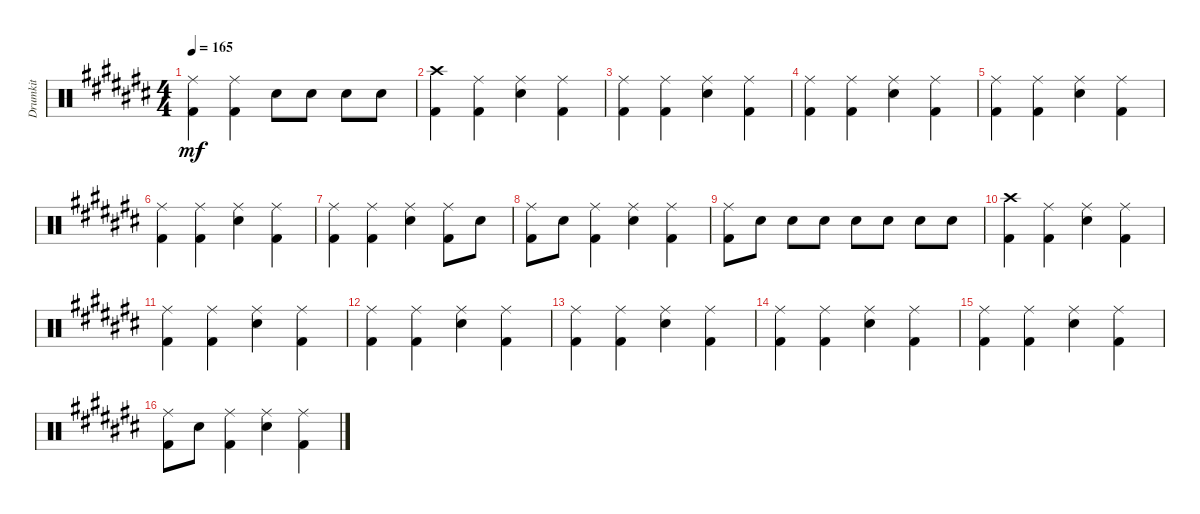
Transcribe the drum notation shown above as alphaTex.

\track ("Drumkit" "Drumkit") {instrument percussion}
\staff {score}
\articulation defaults
\ts (4 4)
\tempo 165
\clef neutral
\ks c#
("Kick (hit) 2" "Ride (middle)").4{dy mf} ("Kick (hit) 2" "Ride (middle)").4 "Snare (hit) 2".8 "Snare (hit) 2".8 "Snare (hit) 2".8 "Snare (hit) 2".8 |
("Kick (hit) 2" "Crash high (hit)").4 ("Kick (hit) 2" "Ride (middle)").4 ("Snare (hit) 2" "Ride (middle)").4 ("Kick (hit) 2" "Ride (middle)").4 |
("Kick (hit) 2" "Ride (middle)").4 ("Kick (hit) 2" "Ride (middle)").4 ("Snare (hit) 2" "Ride (middle)").4 ("Kick (hit) 2" "Ride (middle)").4 |
("Kick (hit) 2" "Ride (middle)").4 ("Kick (hit) 2" "Ride (middle)").4 ("Snare (hit) 2" "Ride (middle)").4 ("Kick (hit) 2" "Ride (middle)").4 |
("Kick (hit) 2" "Ride (middle)").4 ("Kick (hit) 2" "Ride (middle)").4 ("Snare (hit) 2" "Ride (middle)").4 ("Kick (hit) 2" "Ride (middle)").4 |
("Kick (hit) 2" "Ride (middle)").4 ("Kick (hit) 2" "Ride (middle)").4 ("Snare (hit) 2" "Ride (middle)").4 ("Kick (hit) 2" "Ride (middle)").4 |
("Kick (hit) 2" "Ride (middle)").4 ("Kick (hit) 2" "Ride (middle)").4 ("Snare (hit) 2" "Ride (middle)").4 ("Kick (hit) 2" "Ride (middle)").8 "Snare (hit) 2".8 |
("Kick (hit) 2" "Ride (middle)").8 "Snare (hit) 2".8 ("Ride (middle)" "Kick (hit) 2").4 ("Ride (middle)" "Snare (hit) 2").4 ("Kick (hit) 2" "Ride (middle)").4 |
("Kick (hit) 2" "Ride (middle)").8 "Snare (hit) 2".8 "Snare (hit) 2".8 "Snare (hit) 2".8 "Snare (hit) 2".8 "Snare (hit) 2".8 "Snare (hit) 2".8 "Snare (hit) 2".8 |
("Kick (hit) 2" "Crash high (hit)").4 ("Kick (hit) 2" "Ride (middle)").4 ("Snare (hit) 2" "Ride (middle)").4 ("Kick (hit) 2" "Ride (middle)").4 |
("Kick (hit) 2" "Ride (middle)").4 ("Kick (hit) 2" "Ride (middle)").4 ("Snare (hit) 2" "Ride (middle)").4 ("Kick (hit) 2" "Ride (middle)").4 |
("Kick (hit) 2" "Ride (middle)").4 ("Kick (hit) 2" "Ride (middle)").4 ("Snare (hit) 2" "Ride (middle)").4 ("Kick (hit) 2" "Ride (middle)").4 |
("Kick (hit) 2" "Ride (middle)").4 ("Kick (hit) 2" "Ride (middle)").4 ("Snare (hit) 2" "Ride (middle)").4 ("Kick (hit) 2" "Ride (middle)").4 |
("Kick (hit) 2" "Ride (middle)").4 ("Kick (hit) 2" "Ride (middle)").4 ("Snare (hit) 2" "Ride (middle)").4 ("Kick (hit) 2" "Ride (middle)").4 |
("Kick (hit) 2" "Ride (middle)").4 ("Kick (hit) 2" "Ride (middle)").4 ("Snare (hit) 2" "Ride (middle)").4 ("Kick (hit) 2" "Ride (middle)").4 |
("Kick (hit) 2" "Ride (middle)").8 "Snare (hit) 2".8 ("Kick (hit) 2" "Ride (middle)").4 ("Snare (hit) 2" "Ride (middle)").4 ("Kick (hit) 2" "Ride (middle)").4
